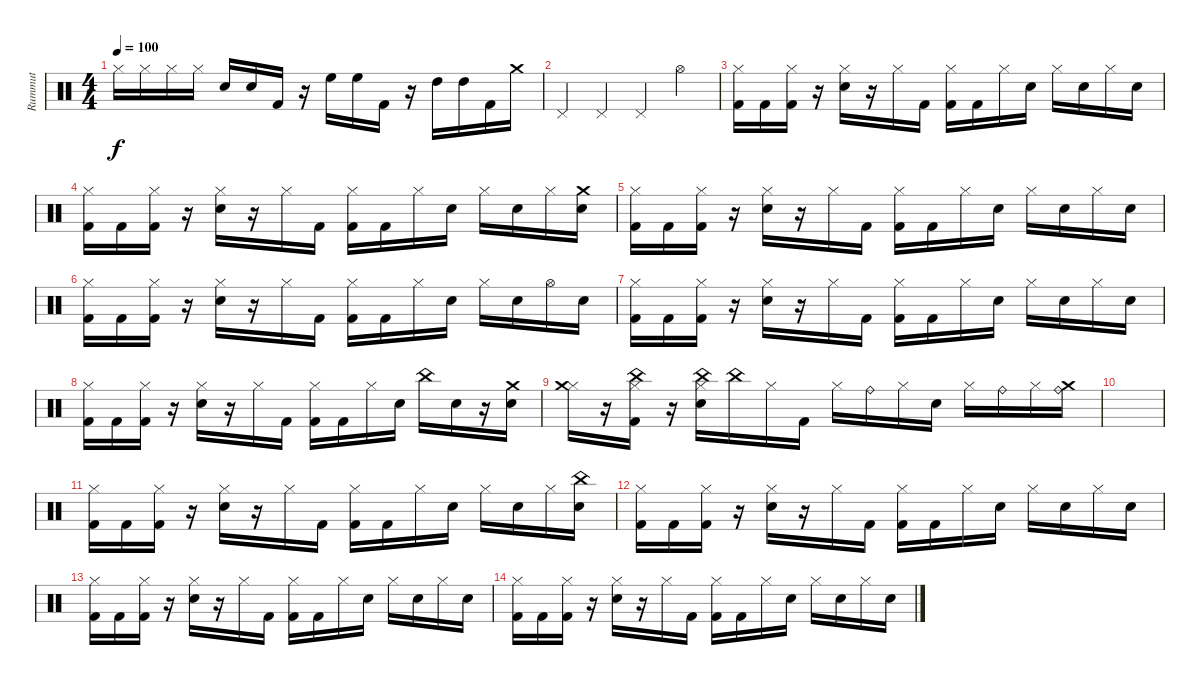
\track ("Rummut" "Rummut") {instrument percussion}
\staff {score}
\articulation defaults
\ts (4 4)
\tempo 100
\clef neutral
\ks c "Hi-Hat (closed)".16{dy f} "Hi-Hat (closed)".16 "Hi-Hat (closed)".16 "Hi-Hat (closed)".16 "Snare (hit) 2".16 "Snare (hit) 2".16 "Kick (hit) 2".16
r.16 "High Floor Tom (hit)".16 "High Floor Tom (hit)".16 "Kick (hit) 2".16 r.16 "High Tom (hit)".16 "High Tom (hit)".16 "Kick (hit) 2".16 "Crash medium (hit)".16 |
"Pedal Hi-Hat (hit)".4 "Pedal Hi-Hat (hit)".4 "Pedal Hi-Hat (hit)".4 "Hi-Hat (open)".4 |
("Hi-Hat (closed)" "Kick (hit) 2").16 "Kick (hit) 2".16 ("Hi-Hat (closed)" "Kick (hit) 2").16 r.16 ("Hi-Hat (closed)" "Snare (hit) 2").16 r.16 "Hi-Hat (closed)".16 "Kick (hit) 2".16 ("Hi-Hat (closed)" "Kick (hit) 2").16 "Kick (hit) 2".16 "Hi-Hat (closed)".16 "Snare (hit) 2".16 "Hi-Hat (closed)".16 "Snare (hit) 2".16 "Hi-Hat (closed)".16 "Snare (hit) 2".16 |
("Hi-Hat (closed)" "Kick (hit) 2").16 "Kick (hit) 2".16 ("Hi-Hat (closed)" "Kick (hit) 2").16 r.16 ("Hi-Hat (closed)" "Snare (hit) 2").16 r.16 "Hi-Hat (closed)".16 "Kick (hit) 2".16 ("Hi-Hat (closed)" "Kick (hit) 2").16 "Kick (hit) 2".16 "Hi-Hat (closed)".16 "Snare (hit) 2".16 "Hi-Hat (closed)".16 "Snare (hit) 2".16 "Hi-Hat (closed)".16 ("Crash medium (hit)" "Snare (hit) 2").16 |
("Hi-Hat (closed)" "Kick (hit) 2").16 "Kick (hit) 2".16 ("Hi-Hat (closed)" "Kick (hit) 2").16 r.16 ("Hi-Hat (closed)" "Snare (hit) 2").16 r.16 "Hi-Hat (closed)".16 "Kick (hit) 2".16 ("Hi-Hat (closed)" "Kick (hit) 2").16 "Kick (hit) 2".16 "Hi-Hat (closed)".16 "Snare (hit) 2".16 "Hi-Hat (closed)".16 "Snare (hit) 2".16 "Hi-Hat (closed)".16 "Snare (hit) 2".16 |
("Hi-Hat (closed)" "Kick (hit) 2").16 "Kick (hit) 2".16 ("Hi-Hat (closed)" "Kick (hit) 2").16 r.16 ("Hi-Hat (closed)" "Snare (hit) 2").16 r.16 "Hi-Hat (closed)".16 "Kick (hit) 2".16 ("Hi-Hat (closed)" "Kick (hit) 2").16 "Kick (hit) 2".16 "Hi-Hat (closed)".16 "Snare (hit) 2".16 "Hi-Hat (closed)".16 "Snare (hit) 2".16 "Hi-Hat (open)".16 "Snare (hit) 2".16 |
("Hi-Hat (closed)" "Kick (hit) 2").16 "Kick (hit) 2".16 ("Hi-Hat (closed)" "Kick (hit) 2").16 r.16 ("Hi-Hat (closed)" "Snare (hit) 2").16 r.16 "Hi-Hat (closed)".16 "Kick (hit) 2".16 ("Hi-Hat (closed)" "Kick (hit) 2").16 "Kick (hit) 2".16 "Hi-Hat (closed)".16 "Snare (hit) 2".16 "Hi-Hat (closed)".16 "Snare (hit) 2".16 "Hi-Hat (closed)".16 "Snare (hit) 2".16 |
("Hi-Hat (closed)" "Kick (hit) 2").16 "Kick (hit) 2".16 ("Hi-Hat (closed)" "Kick (hit) 2").16 r.16 ("Hi-Hat (closed)" "Snare (hit) 2").16 r.16 "Hi-Hat (closed)".16 "Kick (hit) 2".16 ("Hi-Hat (closed)" "Kick (hit) 2").16 "Kick (hit) 2".16 "Hi-Hat (closed)".16 "Snare (hit) 2".16 "China (hit)".16 "Snare (hit) 2".16 r.16 ("Crash medium (hit)" "Snare (hit) 2").16 |
("Hi-Hat (closed)" "Crash medium (hit)").16 r.16 ("Hi-Hat (closed)" "Kick (hit) 2" "China (hit)").16 r.16 ("Hi-Hat (closed)" "Snare (hit) 2" "China (hit)").16 "China (hit)".16 "Hi-Hat (closed)".16 "Kick (hit) 2".16 "Hi-Hat (closed)".16 "Ride (bell)".16 "Hi-Hat (closed)".16 "Snare (hit) 2".16 "Hi-Hat (closed)".16 "Ride (bell)".16 "Hi-Hat (closed)".16 ("Crash medium (hit)" "Ride (bell)").16 |
|
("Hi-Hat (closed)" "Kick (hit) 2").16 "Kick (hit) 2".16 ("Hi-Hat (closed)" "Kick (hit) 2").16 r.16 ("Hi-Hat (closed)" "Snare (hit) 2").16 r.16 "Hi-Hat (closed)".16 "Kick (hit) 2".16 ("Hi-Hat (closed)" "Kick (hit) 2").16 "Kick (hit) 2".16 "Hi-Hat (closed)".16 "Snare (hit) 2".16 "Hi-Hat (closed)".16 "Snare (hit) 2".16 "Hi-Hat (closed)".16 ("China (hit)" "Snare (hit) 2").16 |
("Hi-Hat (closed)" "Kick (hit) 2").16 "Kick (hit) 2".16 ("Hi-Hat (closed)" "Kick (hit) 2").16 r.16 ("Hi-Hat (closed)" "Snare (hit) 2").16 r.16 "Hi-Hat (closed)".16 "Kick (hit) 2".16 ("Hi-Hat (closed)" "Kick (hit) 2").16 "Kick (hit) 2".16 "Hi-Hat (closed)".16 "Snare (hit) 2".16 "Hi-Hat (closed)".16 "Snare (hit) 2".16 "Hi-Hat (closed)".16 "Snare (hit) 2".16 |
("Hi-Hat (closed)" "Kick (hit) 2").16 "Kick (hit) 2".16 ("Hi-Hat (closed)" "Kick (hit) 2").16 r.16 ("Hi-Hat (closed)" "Snare (hit) 2").16 r.16 "Hi-Hat (closed)".16 "Kick (hit) 2".16 ("Hi-Hat (closed)" "Kick (hit) 2").16 "Kick (hit) 2".16 "Hi-Hat (closed)".16 "Snare (hit) 2".16 "Hi-Hat (closed)".16 "Snare (hit) 2".16 "Hi-Hat (closed)".16 "Snare (hit) 2".16 |
("Hi-Hat (closed)" "Kick (hit) 2").16 "Kick (hit) 2".16 ("Hi-Hat (closed)" "Kick (hit) 2").16 r.16 ("Hi-Hat (closed)" "Snare (hit) 2").16 r.16 "Hi-Hat (closed)".16 "Kick (hit) 2".16 ("Hi-Hat (closed)" "Kick (hit) 2").16 "Kick (hit) 2".16 "Hi-Hat (closed)".16 "Snare (hit) 2".16 "Hi-Hat (closed)".16 "Snare (hit) 2".16 "Hi-Hat (closed)".16 "Snare (hit) 2".16
